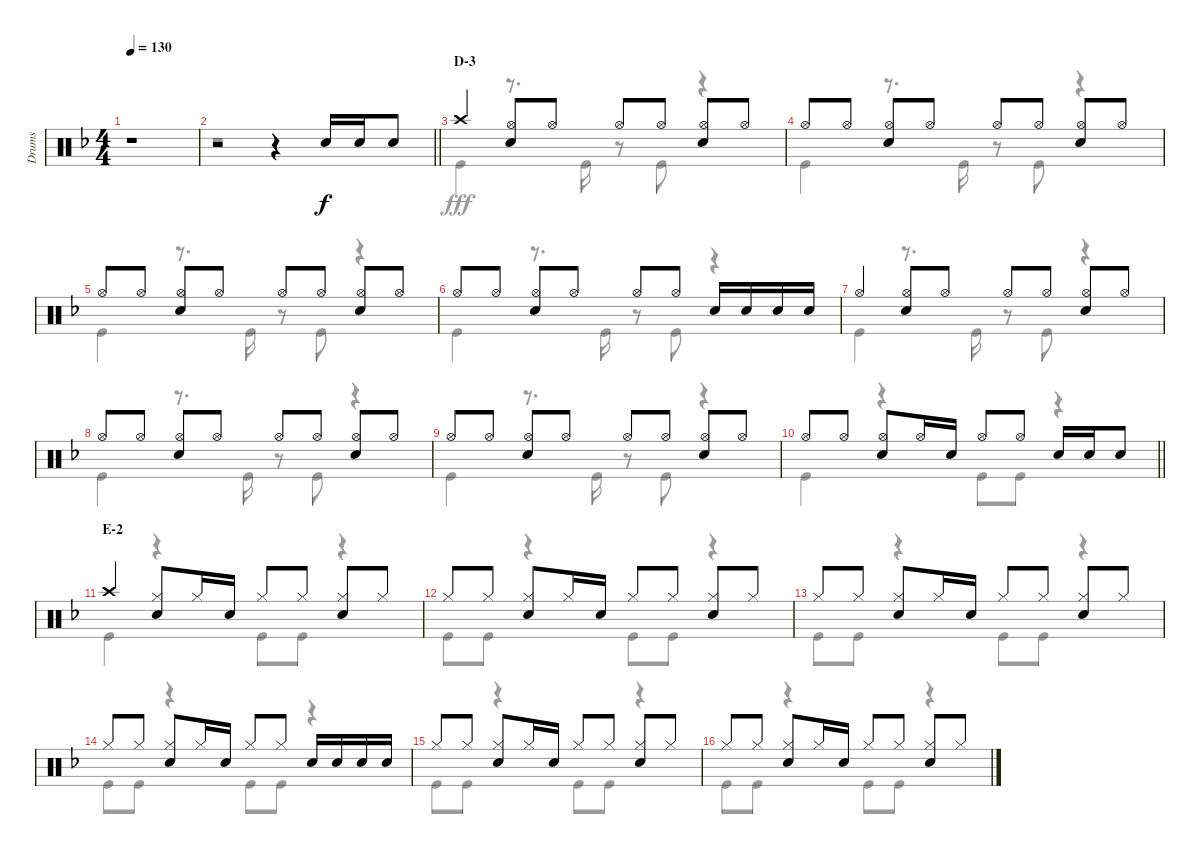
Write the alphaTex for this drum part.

\track ("Drums" "Drums") {instrument percussion}
\staff {score}
\articulation defaults
\voice
\ts (4 4)
\tempo 130
\clef neutral
\ks f
r.1{dy f} |
\barLineRight lightlight
r.2 r.4 "Snare (hit) 2".16 "Snare (hit) 2".16 "Snare (hit) 2".8 |
\section ("" "D-3")
"Crash high (hit)".4 ("Hi-Hat (open)" "Snare (hit) 2").8 "Hi-Hat (open)".8 "Hi-Hat (open)".8 "Hi-Hat (open)".8 ("Hi-Hat (open)" "Snare (hit) 2").8 "Hi-Hat (open)".8 |
"Hi-Hat (open)".8 "Hi-Hat (open)".8 ("Hi-Hat (open)" "Snare (hit) 2").8 "Hi-Hat (open)".8 "Hi-Hat (open)".8 "Hi-Hat (open)".8 ("Hi-Hat (open)" "Snare (hit) 2").8 "Hi-Hat (open)".8 |
"Hi-Hat (open)".8 "Hi-Hat (open)".8 ("Hi-Hat (open)" "Snare (hit) 2").8 "Hi-Hat (open)".8 "Hi-Hat (open)".8 "Hi-Hat (open)".8 ("Hi-Hat (open)" "Snare (hit) 2").8 "Hi-Hat (open)".8 |
"Hi-Hat (open)".8 "Hi-Hat (open)".8 ("Hi-Hat (open)" "Snare (hit) 2").8 "Hi-Hat (open)".8 "Hi-Hat (open)".8 "Hi-Hat (open)".8 "Snare (hit) 2".16 "Snare (hit) 2".16 "Snare (hit) 2".16 "Snare (hit) 2".16 |
"Hi-Hat (open)".4 ("Hi-Hat (open)" "Snare (hit) 2").8 "Hi-Hat (open)".8 "Hi-Hat (open)".8 "Hi-Hat (open)".8 ("Hi-Hat (open)" "Snare (hit) 2").8 "Hi-Hat (open)".8 |
"Hi-Hat (open)".8 "Hi-Hat (open)".8 ("Hi-Hat (open)" "Snare (hit) 2").8 "Hi-Hat (open)".8 "Hi-Hat (open)".8 "Hi-Hat (open)".8 ("Hi-Hat (open)" "Snare (hit) 2").8 "Hi-Hat (open)".8 |
"Hi-Hat (open)".8 "Hi-Hat (open)".8 ("Hi-Hat (open)" "Snare (hit) 2").8 "Hi-Hat (open)".8 "Hi-Hat (open)".8 "Hi-Hat (open)".8 ("Hi-Hat (open)" "Snare (hit) 2").8 "Hi-Hat (open)".8 |
\barLineRight lightlight "Hi-Hat (open)".8 "Hi-Hat (open)".8
("Hi-Hat (open)" "Snare (hit) 2").8 "Hi-Hat (open)".16 "Snare (hit) 2".16 "Hi-Hat (open)".8 "Hi-Hat (open)".8 "Snare (hit) 2".16 "Snare (hit) 2".16 "Snare (hit) 2".8 |
\section ("" "E-2")
"Crash high (hit)".4 ("Hi-Hat (closed)" "Snare (hit) 2").8 "Hi-Hat (closed)".16 "Snare (hit) 2".16 "Hi-Hat (closed)".8 "Hi-Hat (closed)".8 ("Hi-Hat (closed)" "Snare (hit) 2").8 "Hi-Hat (closed)".8 |
"Hi-Hat (closed)".8 "Hi-Hat (closed)".8 ("Hi-Hat (closed)" "Snare (hit) 2").8 "Hi-Hat (closed)".16 "Snare (hit) 2".16 "Hi-Hat (closed)".8 "Hi-Hat (closed)".8 ("Hi-Hat (closed)" "Snare (hit) 2").8 "Hi-Hat (closed)".8 |
"Hi-Hat (closed)".8 "Hi-Hat (closed)".8 ("Hi-Hat (closed)" "Snare (hit) 2").8 "Hi-Hat (closed)".16 "Snare (hit) 2".16 "Hi-Hat (closed)".8 "Hi-Hat (closed)".8 ("Hi-Hat (closed)" "Snare (hit) 2").8 "Hi-Hat (closed)".8 |
"Hi-Hat (closed)".8 "Hi-Hat (closed)".8 ("Hi-Hat (closed)" "Snare (hit) 2").8 "Hi-Hat (closed)".16 "Snare (hit) 2".16 "Hi-Hat (closed)".8 "Hi-Hat (closed)".8 "Snare (hit) 2".16 "Snare (hit) 2".16 "Snare (hit) 2".16 "Snare (hit) 2".16 |
"Hi-Hat (closed)".8 "Hi-Hat (closed)".8 ("Hi-Hat (closed)" "Snare (hit) 2").8 "Hi-Hat (closed)".16 "Snare (hit) 2".16 "Hi-Hat (closed)".8 "Hi-Hat (closed)".8 ("Hi-Hat (closed)" "Snare (hit) 2").8 "Hi-Hat (closed)".8 |
"Hi-Hat (closed)".8 "Hi-Hat (closed)".8 ("Hi-Hat (closed)" "Snare (hit) 2").8 "Hi-Hat (closed)".16 "Snare (hit) 2".16 "Hi-Hat (closed)".8 "Hi-Hat (closed)".8 ("Hi-Hat (closed)" "Snare (hit) 2").8 "Hi-Hat (closed)".8
\voice
\clef neutral
\ottava regular
\simile none
\ks f
r.1{dy fff} |
\barLineRight lightlight
r.1 |
"Kick (hit)".4 r.8{d} "Kick (hit)".16 r.8 "Kick (hit)".8 r.4 |
"Kick (hit)".4 r.8{d} "Kick (hit)".16 r.8 "Kick (hit)".8 r.4 |
"Kick (hit)".4 r.8{d} "Kick (hit)".16 r.8 "Kick (hit)".8 r.4 |
"Kick (hit)".4 r.8{d} "Kick (hit)".16 r.8 "Kick (hit)".8 r.4 |
"Kick (hit)".4 r.8{d} "Kick (hit)".16 r.8 "Kick (hit)".8 r.4 |
"Kick (hit)".4 r.8{d} "Kick (hit)".16 r.8 "Kick (hit)".8 r.4 |
"Kick (hit)".4 r.8{d} "Kick (hit)".16 r.8 "Kick (hit)".8 r.4 |
\barLineRight lightlight "Kick (hit)".4
r.4 "Kick (hit)".8 "Kick (hit)".8 r.4 |
"Kick (hit)".4 r.4 "Kick (hit)".8 "Kick (hit)".8 r.4 |
"Kick (hit)".8 "Kick (hit)".8 r.4 "Kick (hit)".8 "Kick (hit)".8 r.4 |
"Kick (hit)".8 "Kick (hit)".8 r.4 "Kick (hit)".8 "Kick (hit)".8 r.4 |
"Kick (hit)".8 "Kick (hit)".8 r.4 "Kick (hit)".8 "Kick (hit)".8 r.4 |
"Kick (hit)".8 "Kick (hit)".8 r.4 "Kick (hit)".8 "Kick (hit)".8 r.4 |
"Kick (hit)".8 "Kick (hit)".8 r.4 "Kick (hit)".8 "Kick (hit)".8 r.4
